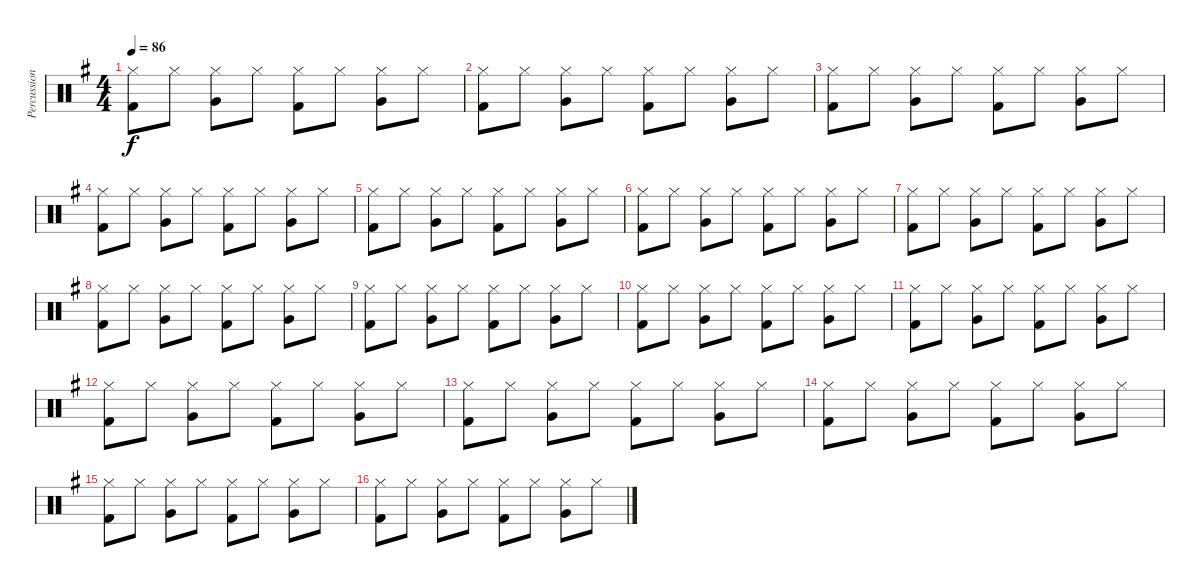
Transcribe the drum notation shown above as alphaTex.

\track ("Percussions" "Percussion") {instrument percussion}
\staff {score}
\articulation defaults
\ts (4 4)
\tempo 86
\clef neutral
\ks g
("Hi-Hat (closed)" "Kick (hit) 2").8{dy f} "Hi-Hat (closed)".8 ("Hi-Hat (closed)" "Very Low Tom (hit)").8 "Hi-Hat (closed)".8 ("Hi-Hat (closed)" "Kick (hit) 2").8 "Hi-Hat (closed)".8 ("Hi-Hat (closed)" "Very Low Tom (hit)").8 "Hi-Hat (closed)".8 |
("Hi-Hat (closed)" "Kick (hit) 2").8 "Hi-Hat (closed)".8 ("Hi-Hat (closed)" "Very Low Tom (hit)").8 "Hi-Hat (closed)".8 ("Hi-Hat (closed)" "Kick (hit) 2").8 "Hi-Hat (closed)".8 ("Hi-Hat (closed)" "Very Low Tom (hit)").8 "Hi-Hat (closed)".8 |
("Hi-Hat (closed)" "Kick (hit) 2").8 "Hi-Hat (closed)".8 ("Hi-Hat (closed)" "Very Low Tom (hit)").8 "Hi-Hat (closed)".8 ("Hi-Hat (closed)" "Kick (hit) 2").8 "Hi-Hat (closed)".8 ("Hi-Hat (closed)" "Very Low Tom (hit)").8 "Hi-Hat (closed)".8 |
("Hi-Hat (closed)" "Kick (hit) 2").8 "Hi-Hat (closed)".8 ("Hi-Hat (closed)" "Very Low Tom (hit)").8 "Hi-Hat (closed)".8 ("Hi-Hat (closed)" "Kick (hit) 2").8 "Hi-Hat (closed)".8 ("Hi-Hat (closed)" "Very Low Tom (hit)").8 "Hi-Hat (closed)".8 |
("Hi-Hat (closed)" "Kick (hit) 2").8 "Hi-Hat (closed)".8 ("Hi-Hat (closed)" "Very Low Tom (hit)").8 "Hi-Hat (closed)".8 ("Hi-Hat (closed)" "Kick (hit) 2").8 "Hi-Hat (closed)".8 ("Hi-Hat (closed)" "Very Low Tom (hit)").8 "Hi-Hat (closed)".8 |
("Hi-Hat (closed)" "Kick (hit) 2").8 "Hi-Hat (closed)".8 ("Hi-Hat (closed)" "Very Low Tom (hit)").8 "Hi-Hat (closed)".8 ("Hi-Hat (closed)" "Kick (hit) 2").8 "Hi-Hat (closed)".8 ("Hi-Hat (closed)" "Very Low Tom (hit)").8 "Hi-Hat (closed)".8 |
("Hi-Hat (closed)" "Kick (hit) 2").8 "Hi-Hat (closed)".8 ("Hi-Hat (closed)" "Very Low Tom (hit)").8 "Hi-Hat (closed)".8 ("Hi-Hat (closed)" "Kick (hit) 2").8 "Hi-Hat (closed)".8 ("Hi-Hat (closed)" "Very Low Tom (hit)").8 "Hi-Hat (closed)".8 |
("Hi-Hat (closed)" "Kick (hit) 2").8 "Hi-Hat (closed)".8 ("Hi-Hat (closed)" "Very Low Tom (hit)").8 "Hi-Hat (closed)".8 ("Hi-Hat (closed)" "Kick (hit) 2").8 "Hi-Hat (closed)".8 ("Hi-Hat (closed)" "Very Low Tom (hit)").8 "Hi-Hat (closed)".8 |
("Hi-Hat (closed)" "Kick (hit) 2").8 "Hi-Hat (closed)".8 ("Hi-Hat (closed)" "Very Low Tom (hit)").8 "Hi-Hat (closed)".8 ("Hi-Hat (closed)" "Kick (hit) 2").8 "Hi-Hat (closed)".8 ("Hi-Hat (closed)" "Very Low Tom (hit)").8 "Hi-Hat (closed)".8 |
("Hi-Hat (closed)" "Kick (hit) 2").8 "Hi-Hat (closed)".8 ("Hi-Hat (closed)" "Very Low Tom (hit)").8 "Hi-Hat (closed)".8 ("Hi-Hat (closed)" "Kick (hit) 2").8 "Hi-Hat (closed)".8 ("Hi-Hat (closed)" "Very Low Tom (hit)").8 "Hi-Hat (closed)".8 |
("Hi-Hat (closed)" "Kick (hit) 2").8 "Hi-Hat (closed)".8 ("Hi-Hat (closed)" "Very Low Tom (hit)").8 "Hi-Hat (closed)".8 ("Hi-Hat (closed)" "Kick (hit) 2").8 "Hi-Hat (closed)".8 ("Hi-Hat (closed)" "Very Low Tom (hit)").8 "Hi-Hat (closed)".8 |
("Hi-Hat (closed)" "Kick (hit) 2").8 "Hi-Hat (closed)".8 ("Hi-Hat (closed)" "Very Low Tom (hit)").8 "Hi-Hat (closed)".8 ("Hi-Hat (closed)" "Kick (hit) 2").8 "Hi-Hat (closed)".8 ("Hi-Hat (closed)" "Very Low Tom (hit)").8 "Hi-Hat (closed)".8 |
("Hi-Hat (closed)" "Kick (hit) 2").8 "Hi-Hat (closed)".8 ("Hi-Hat (closed)" "Very Low Tom (hit)").8 "Hi-Hat (closed)".8 ("Hi-Hat (closed)" "Kick (hit) 2").8 "Hi-Hat (closed)".8 ("Hi-Hat (closed)" "Very Low Tom (hit)").8 "Hi-Hat (closed)".8 |
("Hi-Hat (closed)" "Kick (hit) 2").8 "Hi-Hat (closed)".8 ("Hi-Hat (closed)" "Very Low Tom (hit)").8 "Hi-Hat (closed)".8 ("Hi-Hat (closed)" "Kick (hit) 2").8 "Hi-Hat (closed)".8 ("Hi-Hat (closed)" "Very Low Tom (hit)").8 "Hi-Hat (closed)".8 |
("Hi-Hat (closed)" "Kick (hit) 2").8 "Hi-Hat (closed)".8 ("Hi-Hat (closed)" "Very Low Tom (hit)").8 "Hi-Hat (closed)".8 ("Hi-Hat (closed)" "Kick (hit) 2").8 "Hi-Hat (closed)".8 ("Hi-Hat (closed)" "Very Low Tom (hit)").8 "Hi-Hat (closed)".8 |
("Hi-Hat (closed)" "Kick (hit) 2").8 "Hi-Hat (closed)".8 ("Hi-Hat (closed)" "Very Low Tom (hit)").8 "Hi-Hat (closed)".8 ("Hi-Hat (closed)" "Kick (hit) 2").8 "Hi-Hat (closed)".8 ("Hi-Hat (closed)" "Very Low Tom (hit)").8 "Hi-Hat (closed)".8
